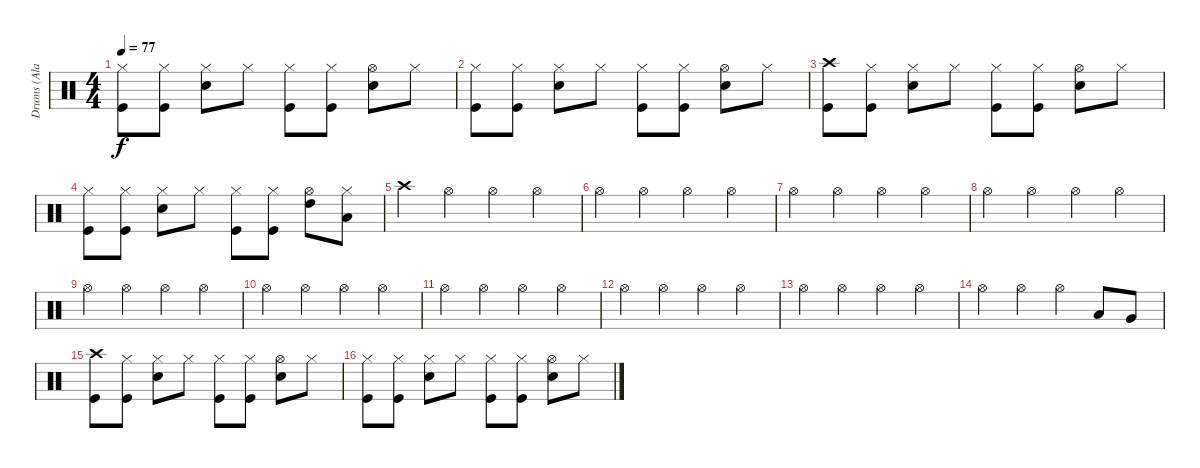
\track ("Drums (Alan White)" "Drums (Ala") {instrument percussion}
\staff {score}
\articulation defaults
\ts (4 4)
\tempo 77
\clef neutral
\ks c
("Hi-Hat (closed)" "Kick (hit)").8{dy f} ("Hi-Hat (closed)" "Kick (hit)").8 ("Hi-Hat (closed)" "Snare (hit) 2").8 "Hi-Hat (closed)".8 ("Hi-Hat (closed)" "Kick (hit)").8 ("Hi-Hat (closed)" "Kick (hit)").8 ("Hi-Hat (open)" "Snare (hit) 2").8 "Hi-Hat (closed)".8 |
("Hi-Hat (closed)" "Kick (hit)").8 ("Hi-Hat (closed)" "Kick (hit)").8 ("Hi-Hat (closed)" "Snare (hit) 2").8 "Hi-Hat (closed)".8 ("Hi-Hat (closed)" "Kick (hit)").8 ("Hi-Hat (closed)" "Kick (hit)").8 ("Hi-Hat (open)" "Snare (hit) 2").8 "Hi-Hat (closed)".8 |
("Crash high (hit)" "Kick (hit)").8 ("Hi-Hat (closed)" "Kick (hit)").8 ("Hi-Hat (closed)" "Snare (hit) 2").8 "Hi-Hat (closed)".8 ("Hi-Hat (closed)" "Kick (hit)").8 ("Hi-Hat (closed)" "Kick (hit)").8 ("Hi-Hat (open)" "Snare (hit) 2").8 "Hi-Hat (closed)".8 |
("Hi-Hat (closed)" "Kick (hit)").8 ("Hi-Hat (closed)" "Kick (hit)").8 ("Hi-Hat (closed)" "Snare (hit) 2").8 "Hi-Hat (closed)".8 ("Hi-Hat (closed)" "Kick (hit)").8 ("Hi-Hat (closed)" "Kick (hit)").8 ("Hi-Hat (open)" "High Tom (hit)").8 ("Hi-Hat (closed)" "Low Tom (hit)").8 |
"Crash high (hit)".4 "Hi-Hat (open)".4 "Hi-Hat (open)".4 "Hi-Hat (open)".4 |
"Hi-Hat (open)".4 "Hi-Hat (open)".4 "Hi-Hat (open)".4 "Hi-Hat (open)".4 |
"Hi-Hat (open)".4 "Hi-Hat (open)".4 "Hi-Hat (open)".4 "Hi-Hat (open)".4 |
"Hi-Hat (open)".4 "Hi-Hat (open)".4 "Hi-Hat (open)".4 "Hi-Hat (open)".4 |
"Hi-Hat (open)".4 "Hi-Hat (open)".4 "Hi-Hat (open)".4 "Hi-Hat (open)".4 |
"Hi-Hat (open)".4 "Hi-Hat (open)".4 "Hi-Hat (open)".4 "Hi-Hat (open)".4 |
"Hi-Hat (open)".4 "Hi-Hat (open)".4 "Hi-Hat (open)".4 "Hi-Hat (open)".4 |
"Hi-Hat (open)".4 "Hi-Hat (open)".4 "Hi-Hat (open)".4 "Hi-Hat (open)".4 |
"Hi-Hat (open)".4 "Hi-Hat (open)".4 "Hi-Hat (open)".4 "Hi-Hat (open)".4 |
"Hi-Hat (open)".4 "Hi-Hat (open)".4 "Hi-Hat (open)".4 "Low Tom (hit)".8 "Very Low Tom (hit)".8 |
("Crash high (hit)" "Kick (hit)").8 ("Hi-Hat (closed)" "Kick (hit)").8 ("Hi-Hat (closed)" "Snare (hit) 2").8 "Hi-Hat (closed)".8 ("Hi-Hat (closed)" "Kick (hit)").8 ("Hi-Hat (closed)" "Kick (hit)").8 ("Hi-Hat (open)" "Snare (hit) 2").8 "Hi-Hat (closed)".8 |
("Hi-Hat (closed)" "Kick (hit)").8 ("Hi-Hat (closed)" "Kick (hit)").8 ("Hi-Hat (closed)" "Snare (hit) 2").8 "Hi-Hat (closed)".8 ("Hi-Hat (closed)" "Kick (hit)").8 ("Hi-Hat (closed)" "Kick (hit)").8 ("Hi-Hat (open)" "Snare (hit) 2").8 "Hi-Hat (closed)".8
